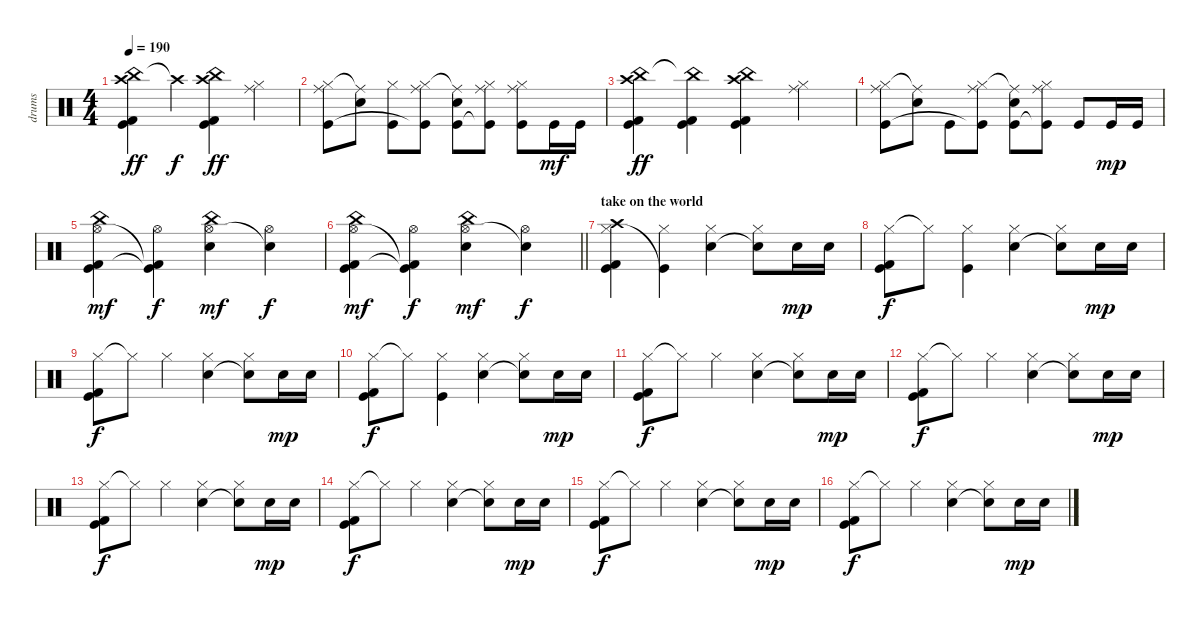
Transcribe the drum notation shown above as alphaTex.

\track ("drums" "drums") {instrument percussion}
\staff {score}
\articulation defaults
\ts (4 4)
\tempo 190
\clef neutral
\ks c
("China (hit)" "Crash high (hit)" "Kick (hit) 2" "Kick (hit)").4{dy ff} "Crash high (hit)"{t}.4{dy f} ("China (hit)" "Crash high (hit)" "Kick (hit) 2" "Kick (hit)").4{dy ff} ("Ride (middle)" "Hi-Hat (closed)").4 |
("Hi-Hat (closed)" "Ride (middle)" "Kick (hit)").8 ("Ride (middle)"{t} "Electric Snare (hit)").8 ("Hi-Hat (closed)" "Kick (hit)").8 ("Hi-Hat (closed)" "Ride (middle)" "Kick (hit)"{t}).8 ("Ride (middle)"{t} "Electric Snare (hit)" "Kick (hit)").8 ("Hi-Hat (closed)" "Ride (middle)" "Kick (hit)"{t}).8 ("Hi-Hat (closed)" "Ride (middle)" "Kick (hit)").8 "Kick (hit)".16{dy mf} "Kick (hit)".16 |
("China (hit)" "Crash high (hit)" "Kick (hit) 2" "Kick (hit)").4{dy ff} ("China (hit)"{t} "Kick (hit) 2" "Kick (hit)").4 ("China (hit)" "Crash high (hit)" "Kick (hit) 2" "Kick (hit)").4 ("Ride (middle)" "Hi-Hat (closed)").4 |
("Hi-Hat (closed)" "Ride (middle)" "Kick (hit)").8 ("Ride (middle)"{t} "Electric Snare (hit)").8 "Kick (hit)".8 ("Hi-Hat (closed)" "Ride (middle)" "Kick (hit)"{t}).8 ("Ride (middle)"{t} "Electric Snare (hit)" "Kick (hit)").8 ("Hi-Hat (closed)" "Ride (middle)" "Kick (hit)"{t}).8 "Kick (hit)".8 "Kick (hit)".16{dy mp} "Kick (hit)".16 |
("China (hit)" "Hi-Hat (open)" "Kick (hit) 2" "Kick (hit)").4{dy mf} ("Hi-Hat (open)" "Kick (hit) 2"{t} "Kick (hit)"{t}).4{dy f} ("China (hit)" "Hi-Hat (open)" "Electric Snare (hit)").4{dy mf} ("Hi-Hat (open)" "Electric Snare (hit)"{t}).4{dy f} |
\barLineRight lightlight
("China (hit)" "Hi-Hat (open)" "Kick (hit) 2" "Kick (hit)").4{dy mf} ("Hi-Hat (open)" "Kick (hit) 2"{t} "Kick (hit)"{t}).4{dy f} ("China (hit)" "Hi-Hat (open)" "Electric Snare (hit)").4{dy mf} ("Hi-Hat (open)" "Electric Snare (hit)"{t}).4{dy f} |
\section ("" "take on the world")
("Crash high (hit)" "Hi-Hat (closed)" "Kick (hit) 2" "Kick (hit)").4 ("Hi-Hat (closed)" "Kick (hit)"{t}).4 ("Hi-Hat (closed)" "Electric Snare (hit)").4 ("Hi-Hat (closed)" "Electric Snare (hit)"{t}).8 "Electric Snare (hit)".16{dy mp} "Electric Snare (hit)".16 |
("Hi-Hat (closed)" "Kick (hit) 2" "Kick (hit)").8{dy f} "Hi-Hat (closed)"{t}.8 ("Hi-Hat (closed)" "Kick (hit)").4 ("Hi-Hat (closed)" "Electric Snare (hit)").4 ("Hi-Hat (closed)" "Electric Snare (hit)"{t}).8 "Electric Snare (hit)".16{dy mp} "Electric Snare (hit)".16 |
("Hi-Hat (closed)" "Kick (hit) 2" "Kick (hit)").8{dy f} "Hi-Hat (closed)"{t}.8 "Hi-Hat (closed)".4 ("Hi-Hat (closed)" "Electric Snare (hit)").4 ("Hi-Hat (closed)" "Electric Snare (hit)"{t}).8 "Electric Snare (hit)".16{dy mp} "Electric Snare (hit)".16 |
("Hi-Hat (closed)" "Kick (hit) 2" "Kick (hit)").8{dy f} "Hi-Hat (closed)"{t}.8 ("Hi-Hat (closed)" "Kick (hit)").4 ("Hi-Hat (closed)" "Electric Snare (hit)").4 ("Hi-Hat (closed)" "Electric Snare (hit)"{t}).8 "Electric Snare (hit)".16{dy mp} "Electric Snare (hit)".16 |
("Hi-Hat (closed)" "Kick (hit) 2" "Kick (hit)").8{dy f} "Hi-Hat (closed)"{t}.8 "Hi-Hat (closed)".4 ("Hi-Hat (closed)" "Electric Snare (hit)").4 ("Hi-Hat (closed)" "Electric Snare (hit)"{t}).8 "Electric Snare (hit)".16{dy mp} "Electric Snare (hit)".16 |
("Hi-Hat (closed)" "Kick (hit) 2" "Kick (hit)").8{dy f} "Hi-Hat (closed)"{t}.8 "Hi-Hat (closed)".4 ("Hi-Hat (closed)" "Electric Snare (hit)").4 ("Hi-Hat (closed)" "Electric Snare (hit)"{t}).8 "Electric Snare (hit)".16{dy mp} "Electric Snare (hit)".16 |
("Hi-Hat (closed)" "Kick (hit) 2" "Kick (hit)").8{dy f} "Hi-Hat (closed)"{t}.8 "Hi-Hat (closed)".4 ("Hi-Hat (closed)" "Electric Snare (hit)").4 ("Hi-Hat (closed)" "Electric Snare (hit)"{t}).8 "Electric Snare (hit)".16{dy mp} "Electric Snare (hit)".16 |
("Hi-Hat (closed)" "Kick (hit) 2" "Kick (hit)").8{dy f} "Hi-Hat (closed)"{t}.8 "Hi-Hat (closed)".4 ("Hi-Hat (closed)" "Electric Snare (hit)").4 ("Hi-Hat (closed)" "Electric Snare (hit)"{t}).8 "Electric Snare (hit)".16{dy mp} "Electric Snare (hit)".16 |
("Hi-Hat (closed)" "Kick (hit) 2" "Kick (hit)").8{dy f} "Hi-Hat (closed)"{t}.8 "Hi-Hat (closed)".4 ("Hi-Hat (closed)" "Electric Snare (hit)").4 ("Hi-Hat (closed)" "Electric Snare (hit)"{t}).8 "Electric Snare (hit)".16{dy mp} "Electric Snare (hit)".16 |
("Hi-Hat (closed)" "Kick (hit) 2" "Kick (hit)").8{dy f} "Hi-Hat (closed)"{t}.8 "Hi-Hat (closed)".4 ("Hi-Hat (closed)" "Electric Snare (hit)").4 ("Hi-Hat (closed)" "Electric Snare (hit)"{t}).8 "Electric Snare (hit)".16{dy mp} "Electric Snare (hit)".16
